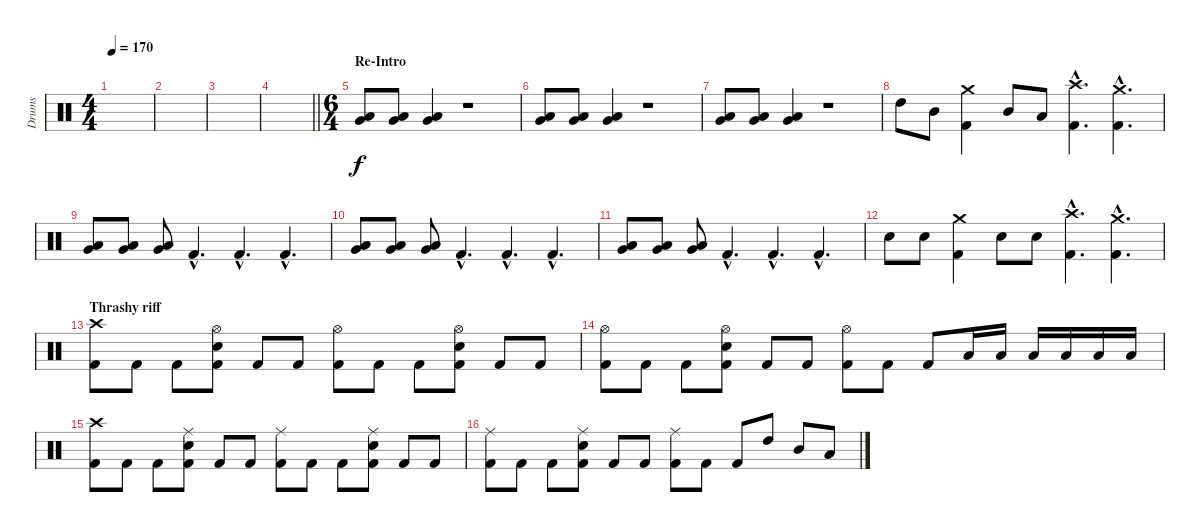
\track ("Drums" "Drums") {instrument percussion}
\staff {score}
\articulation defaults
\ts (4 4)
\tempo 170
\clef neutral
\ks c
|
|
|
\barLineRight lightlight
|
\ts (6 4)
\section ("" "Re-Intro")
("Low Floor Tom (hit)" "Very Low Tom (hit)").8 ("Low Floor Tom (hit)" "Very Low Tom (hit)").8 ("Low Floor Tom (hit)" "Very Low Tom (hit)").4 r.1 |
("Low Floor Tom (hit)" "Very Low Tom (hit)").8 ("Low Floor Tom (hit)" "Very Low Tom (hit)").8 ("Low Floor Tom (hit)" "Very Low Tom (hit)").4 r.1 |
("Low Floor Tom (hit)" "Very Low Tom (hit)").8 ("Low Floor Tom (hit)" "Very Low Tom (hit)").8 ("Low Floor Tom (hit)" "Very Low Tom (hit)").4 r.1 |
"High Tom (hit)".8 "Mid Tom (hit)".8 ("Crash medium (hit)" "Kick (hit) 2").4 "Mid Tom (hit)".8 "Low Tom (hit)".8 ("Crash high (hit)"{hac} "Kick (hit) 2"{hac}).4{d} ("Crash medium (hit)"{hac} "Kick (hit) 2"{hac}).4{d} |
("Low Floor Tom (hit)" "Very Low Tom (hit)").8 ("Low Floor Tom (hit)" "Very Low Tom (hit)").8 ("Low Floor Tom (hit)" "Very Low Tom (hit)").8 "Kick (hit) 2"{hac}.4{d} "Kick (hit) 2"{hac}.4{d} "Kick (hit) 2"{hac}.4{d} |
("Low Floor Tom (hit)" "Very Low Tom (hit)").8 ("Low Floor Tom (hit)" "Very Low Tom (hit)").8 ("Low Floor Tom (hit)" "Very Low Tom (hit)").8 "Kick (hit) 2"{hac}.4{d} "Kick (hit) 2"{hac}.4{d} "Kick (hit) 2"{hac}.4{d} |
("Low Floor Tom (hit)" "Very Low Tom (hit)").8 ("Low Floor Tom (hit)" "Very Low Tom (hit)").8 ("Low Floor Tom (hit)" "Very Low Tom (hit)").8 "Kick (hit) 2"{hac}.4{d} "Kick (hit) 2"{hac}.4{d} "Kick (hit) 2"{hac}.4{d} |
"Electric Snare (hit)".8 "Electric Snare (hit)".8 ("Crash medium (hit)" "Kick (hit) 2").4 "Electric Snare (hit)".8 "Electric Snare (hit)".8 ("Crash high (hit)"{hac} "Kick (hit) 2"{hac}).4{d} ("Crash medium (hit)"{hac} "Kick (hit) 2"{hac}).4{d} |
\section ("" "Thrashy riff")
("Crash high (hit)" "Kick (hit) 2").8 "Kick (hit) 2".8 "Kick (hit) 2".8 ("Hi-Hat (open)" "Electric Snare (hit)" "Kick (hit) 2").8 "Kick (hit) 2".8 "Kick (hit) 2".8 ("Hi-Hat (open)" "Kick (hit) 2").8 "Kick (hit) 2".8 "Kick (hit) 2".8 ("Hi-Hat (open)" "Electric Snare (hit)" "Kick (hit) 2").8 "Kick (hit) 2".8 "Kick (hit) 2".8 |
("Hi-Hat (open)" "Kick (hit) 2").8 "Kick (hit) 2".8 "Kick (hit) 2".8 ("Hi-Hat (open)" "Electric Snare (hit)" "Kick (hit) 2").8 "Kick (hit) 2".8 "Kick (hit) 2".8 ("Hi-Hat (open)" "Kick (hit) 2").8 "Kick (hit) 2".8 "Kick (hit) 2".8 "Low Tom (hit)".16 "Low Tom (hit)".16 "Low Tom (hit)".16 "Low Tom (hit)".16 "Low Tom (hit)".16 "Low Tom (hit)".16 |
("Crash high (hit)" "Kick (hit) 2").8 "Kick (hit) 2".8 "Kick (hit) 2".8 ("Ride (middle)" "Electric Snare (hit)" "Kick (hit) 2").8 "Kick (hit) 2".8 "Kick (hit) 2".8 ("Ride (middle)" "Kick (hit) 2").8 "Kick (hit) 2".8 "Kick (hit) 2".8 ("Ride (middle)" "Electric Snare (hit)" "Kick (hit) 2").8 "Kick (hit) 2".8 "Kick (hit) 2".8 |
("Ride (middle)" "Kick (hit) 2").8 "Kick (hit) 2".8 "Kick (hit) 2".8 ("Ride (middle)" "Electric Snare (hit)" "Kick (hit) 2").8 "Kick (hit) 2".8 "Kick (hit) 2".8 ("Ride (middle)" "Kick (hit) 2").8 "Kick (hit) 2".8 "Kick (hit) 2".8 "High Tom (hit)".8 "Mid Tom (hit)".8 "Low Tom (hit)".8
